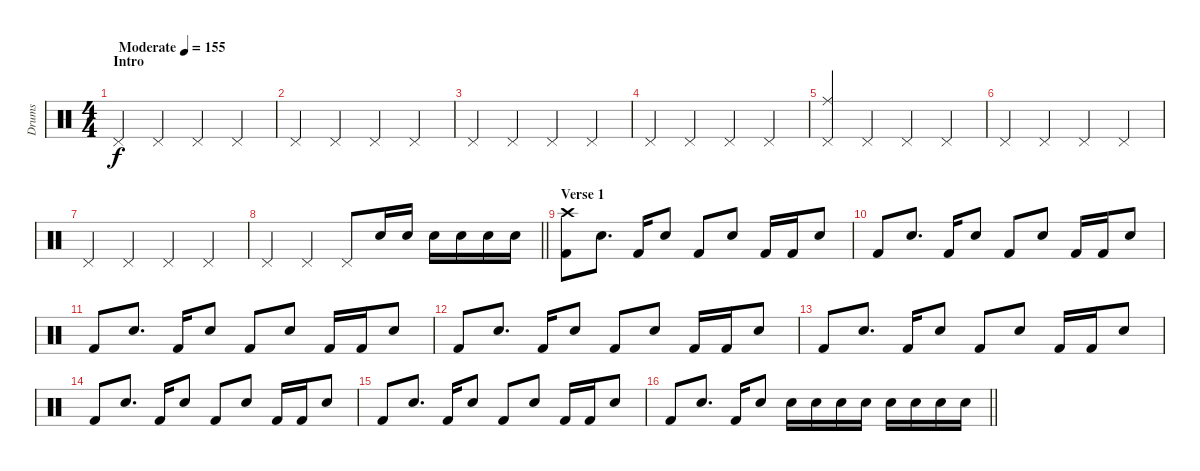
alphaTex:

\track ("Drums" "Drums") {instrument percussion}
\staff {score}
\articulation defaults
\ts (4 4)
\section ("" "Intro")
\tempo (155 "Moderate")
\clef neutral
\ks c "Pedal Hi-Hat (hit)".4{dy f} "Pedal Hi-Hat (hit)".4 "Pedal Hi-Hat (hit)".4 "Pedal Hi-Hat (hit)".4
|
"Pedal Hi-Hat (hit)".4 "Pedal Hi-Hat (hit)".4 "Pedal Hi-Hat (hit)".4 "Pedal Hi-Hat (hit)".4 |
"Pedal Hi-Hat (hit)".4 "Pedal Hi-Hat (hit)".4 "Pedal Hi-Hat (hit)".4 "Pedal Hi-Hat (hit)".4 |
"Pedal Hi-Hat (hit)".4 "Pedal Hi-Hat (hit)".4 "Pedal Hi-Hat (hit)".4 "Pedal Hi-Hat (hit)".4 |
("Ride (middle)" "Pedal Hi-Hat (hit)").4 "Pedal Hi-Hat (hit)".4 "Pedal Hi-Hat (hit)".4 "Pedal Hi-Hat (hit)".4 |
"Pedal Hi-Hat (hit)".4 "Pedal Hi-Hat (hit)".4 "Pedal Hi-Hat (hit)".4 "Pedal Hi-Hat (hit)".4 |
"Pedal Hi-Hat (hit)".4 "Pedal Hi-Hat (hit)".4 "Pedal Hi-Hat (hit)".4 "Pedal Hi-Hat (hit)".4 |
\barLineRight lightlight "Pedal Hi-Hat (hit)".4 "Pedal Hi-Hat (hit)".4 "Pedal Hi-Hat (hit)".8 "Electric Snare (hit)".16 "Electric Snare (hit)".16 "Electric Snare (hit)".16 "Electric Snare (hit)".16 "Electric Snare (hit)".16 "Electric Snare (hit)".16
|
\section ("" "Verse 1")
("Crash high (hit)" "Kick (hit) 2").8 "Electric Snare (hit)".8{d} "Kick (hit) 2".16 "Electric Snare (hit)".8 "Kick (hit) 2".8 "Electric Snare (hit)".8 "Kick (hit) 2".16 "Kick (hit) 2".16 "Electric Snare (hit)".8 |
"Kick (hit) 2".8 "Electric Snare (hit)".8{d} "Kick (hit) 2".16 "Electric Snare (hit)".8 "Kick (hit) 2".8 "Electric Snare (hit)".8 "Kick (hit) 2".16 "Kick (hit) 2".16 "Electric Snare (hit)".8 |
"Kick (hit) 2".8 "Electric Snare (hit)".8{d} "Kick (hit) 2".16 "Electric Snare (hit)".8 "Kick (hit) 2".8 "Electric Snare (hit)".8 "Kick (hit) 2".16 "Kick (hit) 2".16 "Electric Snare (hit)".8 |
"Kick (hit) 2".8 "Electric Snare (hit)".8{d} "Kick (hit) 2".16 "Electric Snare (hit)".8 "Kick (hit) 2".8 "Electric Snare (hit)".8 "Kick (hit) 2".16 "Kick (hit) 2".16 "Electric Snare (hit)".8 |
"Kick (hit) 2".8 "Electric Snare (hit)".8{d} "Kick (hit) 2".16 "Electric Snare (hit)".8 "Kick (hit) 2".8 "Electric Snare (hit)".8 "Kick (hit) 2".16 "Kick (hit) 2".16 "Electric Snare (hit)".8 |
"Kick (hit) 2".8 "Electric Snare (hit)".8{d} "Kick (hit) 2".16 "Electric Snare (hit)".8 "Kick (hit) 2".8 "Electric Snare (hit)".8 "Kick (hit) 2".16 "Kick (hit) 2".16 "Electric Snare (hit)".8 |
"Kick (hit) 2".8 "Electric Snare (hit)".8{d} "Kick (hit) 2".16 "Electric Snare (hit)".8 "Kick (hit) 2".8 "Electric Snare (hit)".8 "Kick (hit) 2".16 "Kick (hit) 2".16 "Electric Snare (hit)".8 |
\barLineRight lightlight "Kick (hit) 2".8 "Electric Snare (hit)".8{d} "Kick (hit) 2".16 "Electric Snare (hit)".8 "Electric Snare (hit)".16 "Electric Snare (hit)".16 "Electric Snare (hit)".16 "Electric Snare (hit)".16 "Electric Snare (hit)".16 "Electric Snare (hit)".16 "Electric Snare (hit)".16 "Electric Snare (hit)".16
